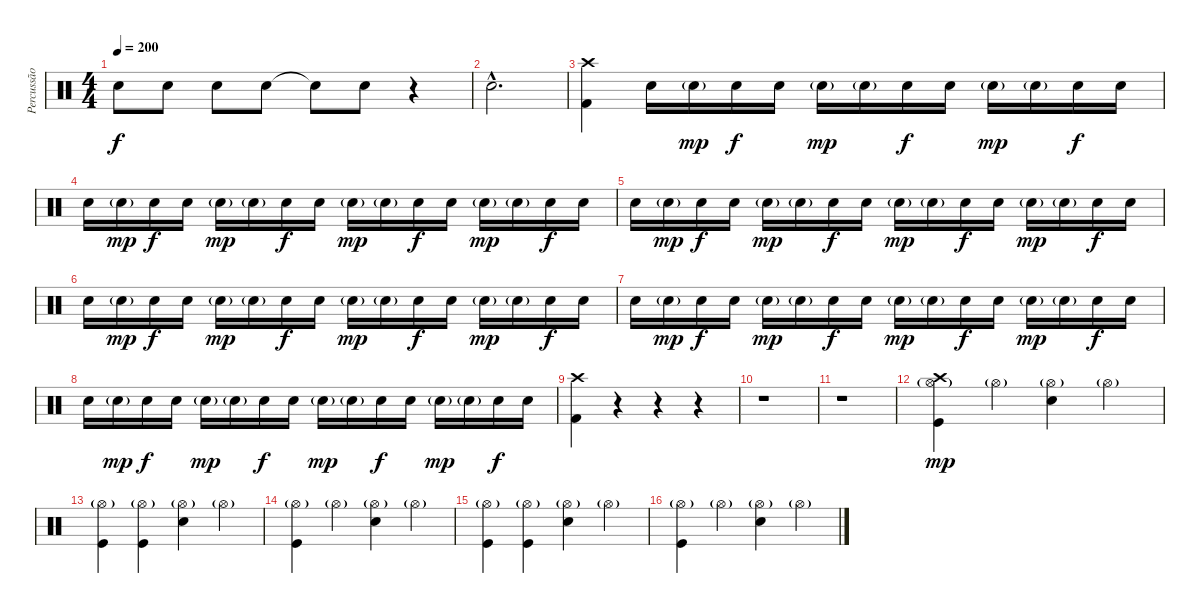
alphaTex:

\track ("Percussão" "Percussão") {instrument percussion}
\staff {score}
\articulation defaults
\ts (4 4)
\tempo 200
\clef neutral
\ks c "Electric Snare (hit)".8{dy f} "Electric Snare (hit)".8 "Electric Snare (hit)".8 "Electric Snare (hit)".8 "Snare (hit)"{t}.8 "Electric Snare (hit)".8
r.4 |
"Electric Snare (hit)"{hac}.2{d} |
("Crash high (hit)" "Kick (hit) 2").4 "Electric Snare (hit)".16{volume 8} "Electric Snare (hit)"{g}.16{dy mp} "Electric Snare (hit)".16{dy f} "Electric Snare (hit)".16 "Electric Snare (hit)"{g}.16{dy mp} "Electric Snare (hit)"{g}.16 "Electric Snare (hit)".16{dy f} "Electric Snare (hit)".16 "Electric Snare (hit)"{g}.16{dy mp} "Electric Snare (hit)"{g}.16 "Electric Snare (hit)".16{dy f} "Electric Snare (hit)".16 |
"Electric Snare (hit)".16 "Electric Snare (hit)"{g}.16{dy mp} "Electric Snare (hit)".16{dy f} "Electric Snare (hit)".16 "Electric Snare (hit)"{g}.16{dy mp} "Electric Snare (hit)"{g}.16 "Electric Snare (hit)".16{dy f} "Electric Snare (hit)".16 "Electric Snare (hit)"{g}.16{dy mp} "Electric Snare (hit)"{g}.16 "Electric Snare (hit)".16{dy f} "Electric Snare (hit)".16 "Electric Snare (hit)"{g}.16{dy mp} "Electric Snare (hit)"{g}.16 "Electric Snare (hit)".16{dy f} "Electric Snare (hit)".16 |
"Electric Snare (hit)".16 "Electric Snare (hit)"{g}.16{dy mp} "Electric Snare (hit)".16{dy f} "Electric Snare (hit)".16 "Electric Snare (hit)"{g}.16{dy mp} "Electric Snare (hit)"{g}.16 "Electric Snare (hit)".16{dy f} "Electric Snare (hit)".16 "Electric Snare (hit)"{g}.16{dy mp} "Electric Snare (hit)"{g}.16 "Electric Snare (hit)".16{dy f} "Electric Snare (hit)".16 "Electric Snare (hit)"{g}.16{dy mp} "Electric Snare (hit)"{g}.16 "Electric Snare (hit)".16{dy f} "Electric Snare (hit)".16 |
"Electric Snare (hit)".16 "Electric Snare (hit)"{g}.16{dy mp} "Electric Snare (hit)".16{dy f} "Electric Snare (hit)".16 "Electric Snare (hit)"{g}.16{dy mp} "Electric Snare (hit)"{g}.16 "Electric Snare (hit)".16{dy f} "Electric Snare (hit)".16 "Electric Snare (hit)"{g}.16{dy mp} "Electric Snare (hit)"{g}.16 "Electric Snare (hit)".16{dy f} "Electric Snare (hit)".16 "Electric Snare (hit)"{g}.16{dy mp} "Electric Snare (hit)"{g}.16 "Electric Snare (hit)".16{dy f} "Electric Snare (hit)".16 |
"Electric Snare (hit)".16 "Electric Snare (hit)"{g}.16{dy mp} "Electric Snare (hit)".16{dy f} "Electric Snare (hit)".16 "Electric Snare (hit)"{g}.16{dy mp} "Electric Snare (hit)"{g}.16 "Electric Snare (hit)".16{dy f} "Electric Snare (hit)".16 "Electric Snare (hit)"{g}.16{dy mp} "Electric Snare (hit)"{g}.16 "Electric Snare (hit)".16{dy f} "Electric Snare (hit)".16 "Electric Snare (hit)"{g}.16{dy mp} "Electric Snare (hit)"{g}.16 "Electric Snare (hit)".16{dy f} "Electric Snare (hit)".16 |
"Electric Snare (hit)".16 "Electric Snare (hit)"{g}.16{dy mp} "Electric Snare (hit)".16{dy f} "Electric Snare (hit)".16 "Electric Snare (hit)"{g}.16{dy mp} "Electric Snare (hit)"{g}.16 "Electric Snare (hit)".16{dy f} "Electric Snare (hit)".16 "Electric Snare (hit)"{g}.16{dy mp} "Electric Snare (hit)"{g}.16 "Electric Snare (hit)".16{dy f} "Electric Snare (hit)".16 "Electric Snare (hit)"{g}.16{dy mp} "Electric Snare (hit)"{g}.16 "Electric Snare (hit)".16{dy f} "Electric Snare (hit)".16 |
("Crash high (hit)" "Kick (hit) 2").4{volume 16} r.4 r.4 r.4 |
r.1 |
r.1 |
("Hi-Hat (open)"{g} "Crash high (hit)" "Kick (hit)").4{dy mp} "Hi-Hat (open)"{g}.4 ("Hi-Hat (open)"{g} "Electric Snare (hit)").4 "Hi-Hat (open)"{g}.4 |
("Hi-Hat (open)"{g} "Kick (hit)").4 ("Hi-Hat (open)"{g} "Kick (hit)").4 ("Hi-Hat (open)"{g} "Electric Snare (hit)").4 "Hi-Hat (open)"{g}.4 |
("Hi-Hat (open)"{g} "Kick (hit)").4 "Hi-Hat (open)"{g}.4 ("Hi-Hat (open)"{g} "Electric Snare (hit)").4 "Hi-Hat (open)"{g}.4 |
("Hi-Hat (open)"{g} "Kick (hit)").4 ("Hi-Hat (open)"{g} "Kick (hit)").4 ("Hi-Hat (open)"{g} "Electric Snare (hit)").4 "Hi-Hat (open)"{g}.4 |
("Hi-Hat (open)"{g} "Kick (hit)").4 "Hi-Hat (open)"{g}.4 ("Hi-Hat (open)"{g} "Electric Snare (hit)").4 "Hi-Hat (open)"{g}.4
